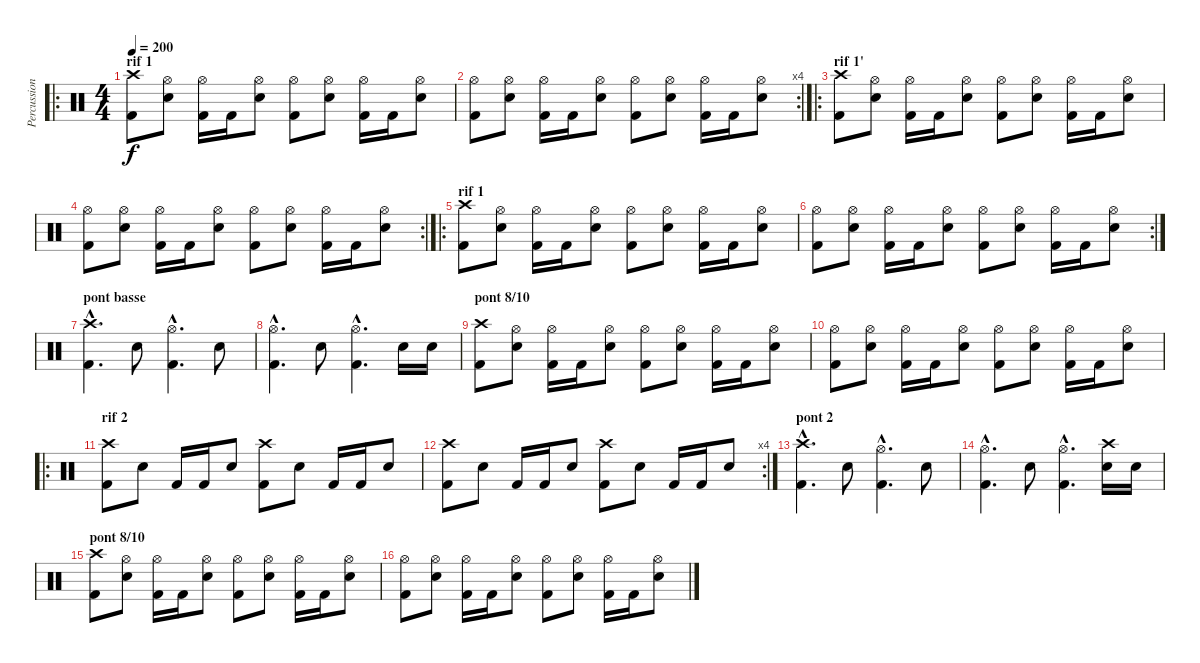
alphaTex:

\track ("Percussions" "Percussion") {instrument percussion}
\staff {score}
\articulation defaults
\ro
\ts (4 4)
\section ("" "rif 1")
\tempo 200
\clef neutral
\ks c
("Crash high (hit)" "Kick (hit) 2").8{dy f} ("Hi-Hat (open)" "Electric Snare (hit)").8 ("Hi-Hat (open)" "Kick (hit) 2").16 "Kick (hit) 2".16 ("Hi-Hat (open)" "Electric Snare (hit)").8 ("Hi-Hat (open)" "Kick (hit) 2").8 ("Hi-Hat (open)" "Electric Snare (hit)").8 ("Hi-Hat (open)" "Kick (hit) 2").16 "Kick (hit) 2".16 ("Hi-Hat (open)" "Electric Snare (hit)").8 |
\rc 4
("Hi-Hat (open)" "Kick (hit) 2").8 ("Hi-Hat (open)" "Electric Snare (hit)").8 ("Hi-Hat (open)" "Kick (hit) 2").16 "Kick (hit) 2".16 ("Hi-Hat (open)" "Electric Snare (hit)").8 ("Hi-Hat (open)" "Kick (hit) 2").8 ("Hi-Hat (open)" "Electric Snare (hit)").8 ("Hi-Hat (open)" "Kick (hit) 2").16 "Kick (hit) 2".16 ("Hi-Hat (open)" "Electric Snare (hit)").8 |
\ro
\section ("" "rif 1'")
("Crash high (hit)" "Kick (hit) 2").8 ("Hi-Hat (open)" "Electric Snare (hit)").8 ("Hi-Hat (open)" "Kick (hit) 2").16 "Kick (hit) 2".16 ("Hi-Hat (open)" "Electric Snare (hit)").8 ("Hi-Hat (open)" "Kick (hit) 2").8 ("Hi-Hat (open)" "Electric Snare (hit)").8 ("Hi-Hat (open)" "Kick (hit) 2").16 "Kick (hit) 2".16 ("Hi-Hat (open)" "Electric Snare (hit)").8 |
\rc 2
\section ("" "")
("Hi-Hat (open)" "Kick (hit) 2").8 ("Hi-Hat (open)" "Electric Snare (hit)").8 ("Hi-Hat (open)" "Kick (hit) 2").16 "Kick (hit) 2".16 ("Hi-Hat (open)" "Electric Snare (hit)").8 ("Hi-Hat (open)" "Kick (hit) 2").8 ("Hi-Hat (open)" "Electric Snare (hit)").8 ("Hi-Hat (open)" "Kick (hit) 2").16 "Kick (hit) 2".16 ("Hi-Hat (open)" "Electric Snare (hit)").8 |
\ro
\section ("" "rif 1")
("Crash high (hit)" "Kick (hit) 2").8 ("Hi-Hat (open)" "Electric Snare (hit)").8 ("Hi-Hat (open)" "Kick (hit) 2").16 "Kick (hit) 2".16 ("Hi-Hat (open)" "Electric Snare (hit)").8 ("Hi-Hat (open)" "Kick (hit) 2").8 ("Hi-Hat (open)" "Electric Snare (hit)").8 ("Hi-Hat (open)" "Kick (hit) 2").16 "Kick (hit) 2".16 ("Hi-Hat (open)" "Electric Snare (hit)").8 |
\rc 2
\section ("" "")
("Hi-Hat (open)" "Kick (hit) 2").8 ("Hi-Hat (open)" "Electric Snare (hit)").8 ("Hi-Hat (open)" "Kick (hit) 2").16 "Kick (hit) 2".16 ("Hi-Hat (open)" "Electric Snare (hit)").8 ("Hi-Hat (open)" "Kick (hit) 2").8 ("Hi-Hat (open)" "Electric Snare (hit)").8 ("Hi-Hat (open)" "Kick (hit) 2").16 "Kick (hit) 2".16 ("Hi-Hat (open)" "Electric Snare (hit)").8 |
\section ("" "pont basse")
("Crash high (hit)"{hac} "Kick (hit) 2"{hac}).4{d} "Electric Snare (hit)".8 ("Hi-Hat (open)"{hac} "Kick (hit) 2"{hac}).4{d} "Electric Snare (hit)".8 |
("Hi-Hat (open)"{hac} "Kick (hit) 2"{hac}).4{d} "Electric Snare (hit)".8 ("Hi-Hat (open)"{hac} "Kick (hit) 2"{hac}).4{d} "Electric Snare (hit)".16 "Electric Snare (hit)".16 |
\section ("" "pont 8/10")
("Crash high (hit)" "Kick (hit) 2").8 ("Hi-Hat (open)" "Electric Snare (hit)").8 ("Hi-Hat (open)" "Kick (hit) 2").16 "Kick (hit) 2".16 ("Hi-Hat (open)" "Electric Snare (hit)").8 ("Hi-Hat (open)" "Kick (hit) 2").8 ("Hi-Hat (open)" "Electric Snare (hit)").8 ("Hi-Hat (open)" "Kick (hit) 2").16 "Kick (hit) 2".16 ("Hi-Hat (open)" "Electric Snare (hit)").8 |
("Hi-Hat (open)" "Kick (hit) 2").8 ("Hi-Hat (open)" "Electric Snare (hit)").8 ("Hi-Hat (open)" "Kick (hit) 2").16 "Kick (hit) 2".16 ("Hi-Hat (open)" "Electric Snare (hit)").8 ("Hi-Hat (open)" "Kick (hit) 2").8 ("Hi-Hat (open)" "Electric Snare (hit)").8 ("Hi-Hat (open)" "Kick (hit) 2").16 "Kick (hit) 2".16 ("Hi-Hat (open)" "Electric Snare (hit)").8 |
\ro
\section ("" "rif 2")
("Crash high (hit)" "Kick (hit) 2").8 "Electric Snare (hit)".8 "Kick (hit) 2".16 "Kick (hit) 2".16 "Electric Snare (hit)".8 ("Crash high (hit)" "Kick (hit) 2").8 "Electric Snare (hit)".8 "Kick (hit) 2".16 "Kick (hit) 2".16 "Electric Snare (hit)".8 |
\rc 4
("Crash high (hit)" "Kick (hit) 2").8 "Electric Snare (hit)".8 "Kick (hit) 2".16 "Kick (hit) 2".16 "Electric Snare (hit)".8 ("Crash high (hit)" "Kick (hit) 2").8 "Electric Snare (hit)".8 "Kick (hit) 2".16 "Kick (hit) 2".16 "Electric Snare (hit)".8 |
\section ("" "pont 2")
("Crash high (hit)"{hac} "Kick (hit) 2"{hac}).4{d} "Electric Snare (hit)".8 ("Hi-Hat (open)"{hac} "Kick (hit) 2"{hac}).4{d} "Electric Snare (hit)".8 |
("Hi-Hat (open)"{hac} "Kick (hit) 2"{hac}).4{d} "Electric Snare (hit)".8 ("Hi-Hat (open)"{hac} "Kick (hit) 2"{hac}).4{d} ("Crash high (hit)" "Electric Snare (hit)").16 "Electric Snare (hit)".16 |
\section ("" "pont 8/10")
("Crash high (hit)" "Kick (hit) 2").8 ("Hi-Hat (open)" "Electric Snare (hit)").8 ("Hi-Hat (open)" "Kick (hit) 2").16 "Kick (hit) 2".16 ("Hi-Hat (open)" "Electric Snare (hit)").8 ("Hi-Hat (open)" "Kick (hit) 2").8 ("Hi-Hat (open)" "Electric Snare (hit)").8 ("Hi-Hat (open)" "Kick (hit) 2").16 "Kick (hit) 2".16 ("Hi-Hat (open)" "Electric Snare (hit)").8 |
("Hi-Hat (open)" "Kick (hit) 2").8 ("Hi-Hat (open)" "Electric Snare (hit)").8 ("Hi-Hat (open)" "Kick (hit) 2").16 "Kick (hit) 2".16 ("Hi-Hat (open)" "Electric Snare (hit)").8 ("Hi-Hat (open)" "Kick (hit) 2").8 ("Hi-Hat (open)" "Electric Snare (hit)").8 ("Hi-Hat (open)" "Kick (hit) 2").16 "Kick (hit) 2".16 ("Hi-Hat (open)" "Electric Snare (hit)").8
